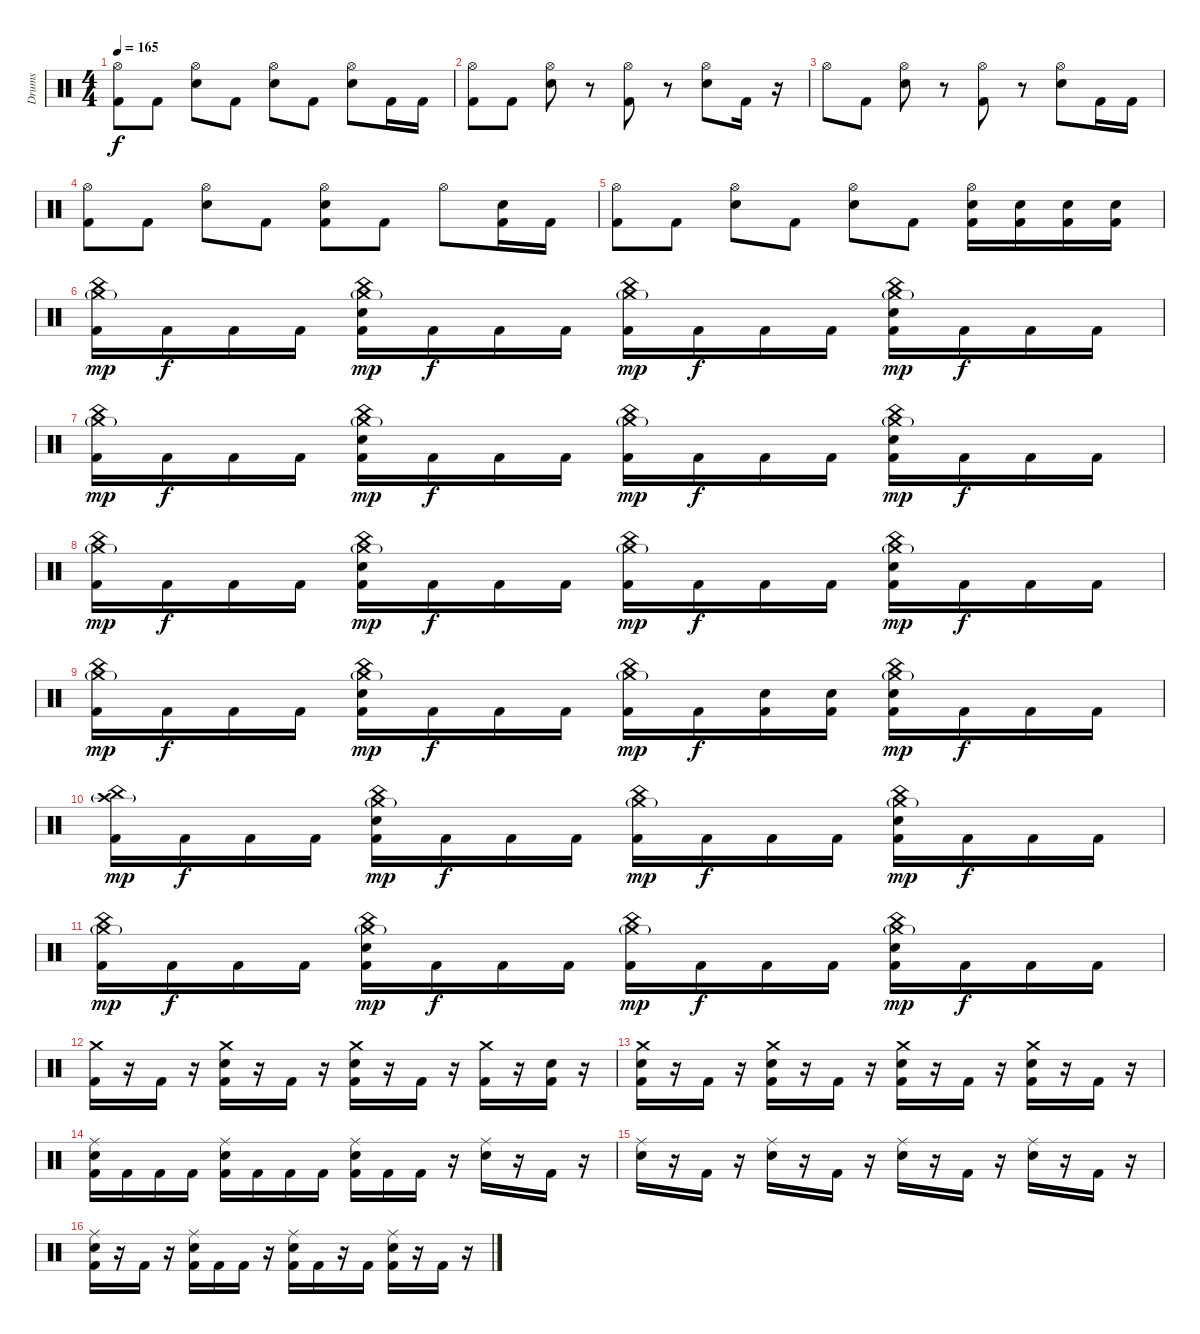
\track ("Drums" "Drums") {instrument percussion}
\staff {score}
\articulation defaults
\ts (4 4)
\tempo 165
\clef neutral
\ks c
("Hi-Hat (open)" "Kick (hit) 2").8{dy f} "Kick (hit) 2".8 ("Hi-Hat (open)" "Electric Snare (hit)").8 "Kick (hit) 2".8 ("Hi-Hat (open)" "Electric Snare (hit)").8 "Kick (hit) 2".8 ("Hi-Hat (open)" "Electric Snare (hit)").8 "Kick (hit) 2".16 "Kick (hit) 2".16 |
("Hi-Hat (open)" "Kick (hit) 2").8 "Kick (hit) 2".8 ("Hi-Hat (open)" "Electric Snare (hit)").8 r.8 ("Hi-Hat (open)" "Kick (hit) 2").8 r.8 ("Hi-Hat (open)" "Electric Snare (hit)").8 "Kick (hit) 2".16 r.16 |
"Hi-Hat (open)".8 "Kick (hit) 2".8 ("Hi-Hat (open)" "Electric Snare (hit)").8 r.8 ("Hi-Hat (open)" "Kick (hit) 2").8 r.8 ("Hi-Hat (open)" "Electric Snare (hit)").8 "Kick (hit) 2".16 "Kick (hit) 2".16 |
("Hi-Hat (open)" "Kick (hit) 2").8 "Kick (hit) 2".8 ("Hi-Hat (open)" "Electric Snare (hit)").8 "Kick (hit) 2".8 ("Hi-Hat (open)" "Electric Snare (hit)" "Kick (hit) 2").8 "Kick (hit) 2".8 "Hi-Hat (open)".8 ("Electric Snare (hit)" "Kick (hit) 2").16 "Kick (hit) 2".16 |
("Hi-Hat (open)" "Kick (hit) 2").8 "Kick (hit) 2".8 ("Hi-Hat (open)" "Electric Snare (hit)").8 "Kick (hit) 2".8 ("Hi-Hat (open)" "Electric Snare (hit)").8 "Kick (hit) 2".8 ("Hi-Hat (open)" "Electric Snare (hit)" "Kick (hit) 2").16 ("Electric Snare (hit)" "Kick (hit) 2").16 ("Electric Snare (hit)" "Kick (hit) 2").16 ("Electric Snare (hit)" "Kick (hit) 2").16 |
("Crash medium (hit)"{g} "China (hit)" "Kick (hit) 2").16{dy mp} "Kick (hit) 2".16{dy f} "Kick (hit) 2".16 "Kick (hit) 2".16 ("Crash medium (hit)"{g} "China (hit)" "Electric Snare (hit)" "Kick (hit) 2").16{dy mp} "Kick (hit) 2".16{dy f} "Kick (hit) 2".16 "Kick (hit) 2".16 ("Crash medium (hit)"{g} "China (hit)" "Kick (hit) 2").16{dy mp} "Kick (hit) 2".16{dy f} "Kick (hit) 2".16 "Kick (hit) 2".16 ("Crash medium (hit)"{g} "China (hit)" "Electric Snare (hit)" "Kick (hit) 2").16{dy mp} "Kick (hit) 2".16{dy f} "Kick (hit) 2".16 "Kick (hit) 2".16 |
("Crash medium (hit)"{g} "China (hit)" "Kick (hit) 2").16{dy mp} "Kick (hit) 2".16{dy f} "Kick (hit) 2".16 "Kick (hit) 2".16 ("Crash medium (hit)"{g} "China (hit)" "Electric Snare (hit)" "Kick (hit) 2").16{dy mp} "Kick (hit) 2".16{dy f} "Kick (hit) 2".16 "Kick (hit) 2".16 ("Crash medium (hit)"{g} "China (hit)" "Kick (hit) 2").16{dy mp} "Kick (hit) 2".16{dy f} "Kick (hit) 2".16 "Kick (hit) 2".16 ("Crash medium (hit)"{g} "China (hit)" "Electric Snare (hit)" "Kick (hit) 2").16{dy mp} "Kick (hit) 2".16{dy f} "Kick (hit) 2".16 "Kick (hit) 2".16 |
("Crash medium (hit)"{g} "China (hit)" "Kick (hit) 2").16{dy mp} "Kick (hit) 2".16{dy f} "Kick (hit) 2".16 "Kick (hit) 2".16 ("Crash medium (hit)"{g} "China (hit)" "Electric Snare (hit)" "Kick (hit) 2").16{dy mp} "Kick (hit) 2".16{dy f} "Kick (hit) 2".16 "Kick (hit) 2".16 ("Crash medium (hit)"{g} "China (hit)" "Kick (hit) 2").16{dy mp} "Kick (hit) 2".16{dy f} "Kick (hit) 2".16 "Kick (hit) 2".16 ("Crash medium (hit)"{g} "China (hit)" "Electric Snare (hit)" "Kick (hit) 2").16{dy mp} "Kick (hit) 2".16{dy f} "Kick (hit) 2".16 "Kick (hit) 2".16 |
("Crash medium (hit)"{g} "China (hit)" "Kick (hit) 2").16{dy mp} "Kick (hit) 2".16{dy f} "Kick (hit) 2".16 "Kick (hit) 2".16 ("Crash medium (hit)"{g} "China (hit)" "Electric Snare (hit)" "Kick (hit) 2").16{dy mp} "Kick (hit) 2".16{dy f} "Kick (hit) 2".16 "Kick (hit) 2".16 ("Crash medium (hit)"{g} "China (hit)" "Kick (hit) 2").16{dy mp} "Kick (hit) 2".16{dy f} ("Electric Snare (hit)" "Kick (hit) 2").16 ("Electric Snare (hit)" "Kick (hit) 2").16 ("Crash medium (hit)"{g} "China (hit)" "Electric Snare (hit)" "Kick (hit) 2").16{dy mp} "Kick (hit) 2".16{dy f} "Kick (hit) 2".16 "Kick (hit) 2".16 |
("Crash high (hit)"{g} "China (hit)" "Kick (hit) 2").16{dy mp} "Kick (hit) 2".16{dy f} "Kick (hit) 2".16 "Kick (hit) 2".16 ("Crash medium (hit)"{g} "China (hit)" "Electric Snare (hit)" "Kick (hit) 2").16{dy mp} "Kick (hit) 2".16{dy f} "Kick (hit) 2".16 "Kick (hit) 2".16 ("Crash medium (hit)"{g} "China (hit)" "Kick (hit) 2").16{dy mp} "Kick (hit) 2".16{dy f} "Kick (hit) 2".16 "Kick (hit) 2".16 ("Crash medium (hit)"{g} "China (hit)" "Electric Snare (hit)" "Kick (hit) 2").16{dy mp} "Kick (hit) 2".16{dy f} "Kick (hit) 2".16 "Kick (hit) 2".16 |
("Crash medium (hit)"{g} "China (hit)" "Kick (hit) 2").16{dy mp} "Kick (hit) 2".16{dy f} "Kick (hit) 2".16 "Kick (hit) 2".16 ("Crash medium (hit)"{g} "China (hit)" "Electric Snare (hit)" "Kick (hit) 2").16{dy mp} "Kick (hit) 2".16{dy f} "Kick (hit) 2".16 "Kick (hit) 2".16 ("Crash medium (hit)"{g} "China (hit)" "Kick (hit) 2").16{dy mp} "Kick (hit) 2".16{dy f} "Kick (hit) 2".16 "Kick (hit) 2".16 ("Crash medium (hit)"{g} "China (hit)" "Electric Snare (hit)" "Kick (hit) 2").16{dy mp} "Kick (hit) 2".16{dy f} "Kick (hit) 2".16 "Kick (hit) 2".16 |
("Crash medium (hit)" "Kick (hit) 2").16 r.16 "Kick (hit) 2".16 r.16 ("Crash medium (hit)" "Electric Snare (hit)" "Kick (hit) 2").16 r.16 "Kick (hit) 2".16 r.16 ("Crash medium (hit)" "Electric Snare (hit)" "Kick (hit) 2").16 r.16 "Kick (hit) 2".16 r.16 ("Crash medium (hit)" "Kick (hit) 2").16 r.16 ("Electric Snare (hit)" "Kick (hit) 2").16 r.16 |
("Crash medium (hit)" "Electric Snare (hit)" "Kick (hit) 2").16 r.16 "Kick (hit) 2".16 r.16 ("Crash medium (hit)" "Electric Snare (hit)" "Kick (hit) 2").16 r.16 "Kick (hit) 2".16 r.16 ("Crash medium (hit)" "Electric Snare (hit)" "Kick (hit) 2").16 r.16 "Kick (hit) 2".16 r.16 ("Crash medium (hit)" "Electric Snare (hit)" "Kick (hit) 2").16 r.16 "Kick (hit) 2".16 r.16 |
("Ride (middle)" "Electric Snare (hit)" "Kick (hit) 2").16 "Kick (hit) 2".16 "Kick (hit) 2".16 "Kick (hit) 2".16 ("Ride (middle)" "Electric Snare (hit)" "Kick (hit) 2").16 "Kick (hit) 2".16 "Kick (hit) 2".16 "Kick (hit) 2".16 ("Ride (middle)" "Electric Snare (hit)" "Kick (hit) 2").16 "Kick (hit) 2".16 "Kick (hit) 2".16 r.16 ("Ride (middle)" "Electric Snare (hit)").16 r.16 "Kick (hit) 2".16 r.16 |
("Ride (middle)" "Electric Snare (hit)").16 r.16 "Kick (hit) 2".16 r.16 ("Ride (middle)" "Electric Snare (hit)").16 r.16 "Kick (hit) 2".16 r.16 ("Ride (middle)" "Electric Snare (hit)").16 r.16 "Kick (hit) 2".16 r.16 ("Ride (middle)" "Electric Snare (hit)").16 r.16 "Kick (hit) 2".16 r.16 |
("Ride (middle)" "Electric Snare (hit)" "Kick (hit) 2").16 r.16 "Kick (hit) 2".16 r.16 ("Ride (middle)" "Electric Snare (hit)" "Kick (hit) 2").16 "Kick (hit) 2".16 "Kick (hit) 2".16 r.16 ("Ride (middle)" "Electric Snare (hit)" "Kick (hit) 2").16 "Kick (hit) 2".16 r.16 "Kick (hit) 2".16 ("Ride (middle)" "Electric Snare (hit)" "Kick (hit) 2").16 r.16 "Kick (hit) 2".16 r.16
